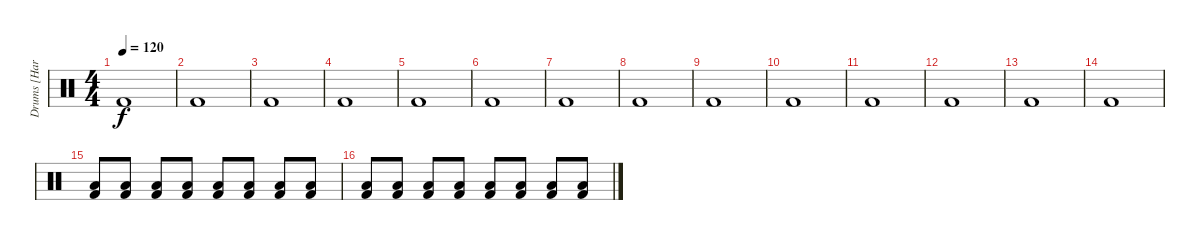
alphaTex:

\track ("Drums [Harry]" "Drums [Har") {instrument percussion}
\staff {score}
\articulation defaults
\ts (4 4)
\tempo 120
\clef neutral
\ks c "Kick (hit) 2".1{dy f}
|
"Kick (hit) 2".1 |
"Kick (hit) 2".1 |
"Kick (hit) 2".1 |
"Kick (hit) 2".1 |
"Kick (hit) 2".1 |
"Kick (hit) 2".1 |
"Kick (hit) 2".1 |
"Kick (hit) 2".1 |
"Kick (hit) 2".1 |
"Kick (hit) 2".1 |
"Kick (hit) 2".1 |
"Kick (hit) 2".1 |
"Kick (hit) 2".1 |
("Low Floor Tom (hit)" "Kick (hit) 2").8 ("Low Floor Tom (hit)" "Kick (hit) 2").8 ("Low Floor Tom (hit)" "Kick (hit) 2").8 ("Low Floor Tom (hit)" "Kick (hit) 2").8 ("Low Floor Tom (hit)" "Kick (hit) 2").8 ("Low Floor Tom (hit)" "Kick (hit) 2").8 ("Low Floor Tom (hit)" "Kick (hit) 2").8 ("Low Floor Tom (hit)" "Kick (hit) 2").8 |
("Low Floor Tom (hit)" "Kick (hit) 2").8 ("Low Floor Tom (hit)" "Kick (hit) 2").8 ("Low Floor Tom (hit)" "Kick (hit) 2").8 ("Low Floor Tom (hit)" "Kick (hit) 2").8 ("Low Floor Tom (hit)" "Kick (hit) 2").8 ("Low Floor Tom (hit)" "Kick (hit) 2").8 ("Low Floor Tom (hit)" "Kick (hit) 2").8 ("Low Floor Tom (hit)" "Kick (hit) 2").8
